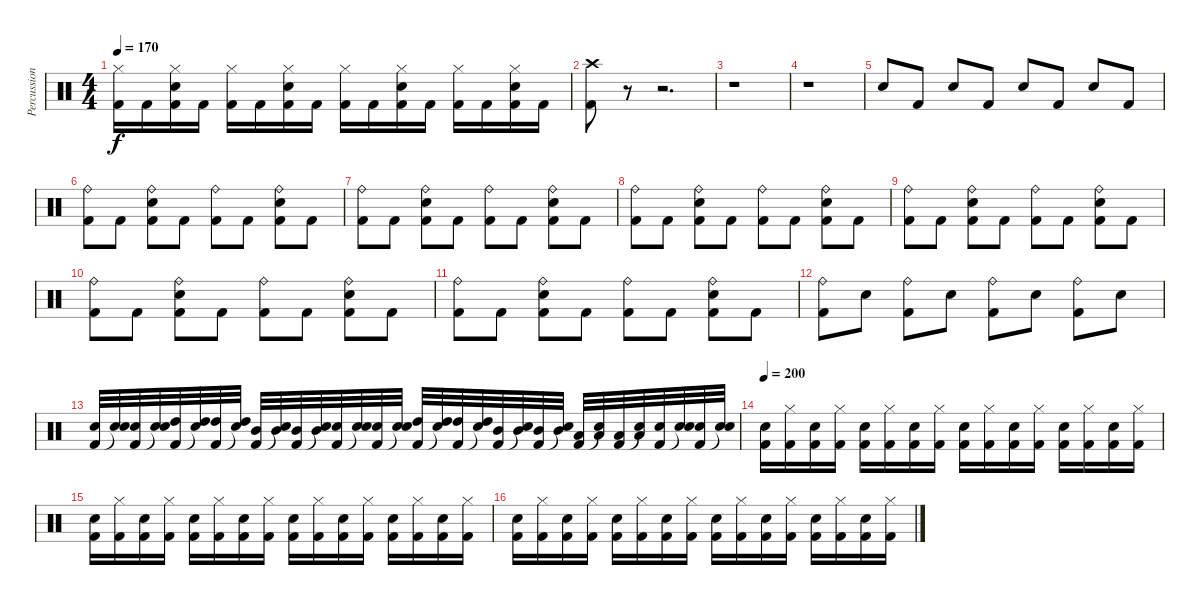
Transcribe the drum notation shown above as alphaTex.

\track ("Percussion" "Percussion") {instrument percussion}
\staff {score}
\articulation defaults
\ts (4 4)
\tempo 170
\clef neutral
\ks c
("Hi-Hat (closed)" "Kick (hit) 2").16{dy f} "Kick (hit) 2".16 ("Hi-Hat (closed)" "Snare (hit) 2" "Kick (hit) 2").16 "Kick (hit) 2".16 ("Hi-Hat (closed)" "Kick (hit) 2").16 "Kick (hit) 2".16 ("Hi-Hat (closed)" "Snare (hit) 2" "Kick (hit) 2").16 "Kick (hit) 2".16 ("Hi-Hat (closed)" "Kick (hit) 2").16 "Kick (hit) 2".16 ("Hi-Hat (closed)" "Snare (hit) 2" "Kick (hit) 2").16 "Kick (hit) 2".16 ("Hi-Hat (closed)" "Kick (hit) 2").16 "Kick (hit) 2".16 ("Hi-Hat (closed)" "Snare (hit) 2" "Kick (hit) 2").16 "Kick (hit) 2".16 |
("Crash high (hit)" "Kick (hit) 2").8 r.8 r.2{d} |
r.1 |
r.1 |
"Snare (hit) 2".8 "Kick (hit) 2".8 "Snare (hit) 2".8 "Kick (hit) 2".8 "Snare (hit) 2".8 "Kick (hit) 2".8 "Snare (hit) 2".8 "Kick (hit) 2".8 |
("Ride (bell)" "Kick (hit) 2").8 "Kick (hit) 2".8 ("Ride (bell)" "Snare (hit) 2" "Kick (hit) 2").8 "Kick (hit) 2".8 ("Ride (bell)" "Kick (hit) 2").8 "Kick (hit) 2".8 ("Ride (bell)" "Snare (hit) 2" "Kick (hit) 2").8 "Kick (hit) 2".8 |
("Ride (bell)" "Kick (hit) 2").8 "Kick (hit) 2".8 ("Ride (bell)" "Snare (hit) 2" "Kick (hit) 2").8 "Kick (hit) 2".8 ("Ride (bell)" "Kick (hit) 2").8 "Kick (hit) 2".8 ("Ride (bell)" "Snare (hit) 2" "Kick (hit) 2").8 "Kick (hit) 2".8 |
("Ride (bell)" "Kick (hit) 2").8 "Kick (hit) 2".8 ("Ride (bell)" "Snare (hit) 2" "Kick (hit) 2").8 "Kick (hit) 2".8 ("Ride (bell)" "Kick (hit) 2").8 "Kick (hit) 2".8 ("Ride (bell)" "Snare (hit) 2" "Kick (hit) 2").8 "Kick (hit) 2".8 |
("Ride (bell)" "Kick (hit) 2").8 "Kick (hit) 2".8 ("Ride (bell)" "Snare (hit) 2" "Kick (hit) 2").8 "Kick (hit) 2".8 ("Ride (bell)" "Kick (hit) 2").8 "Kick (hit) 2".8 ("Ride (bell)" "Snare (hit) 2" "Kick (hit) 2").8 "Kick (hit) 2".8 |
("Ride (bell)" "Kick (hit) 2").8 "Kick (hit) 2".8 ("Ride (bell)" "Snare (hit) 2" "Kick (hit) 2").8 "Kick (hit) 2".8 ("Ride (bell)" "Kick (hit) 2").8 "Kick (hit) 2".8 ("Ride (bell)" "Snare (hit) 2" "Kick (hit) 2").8 "Kick (hit) 2".8 |
("Ride (bell)" "Kick (hit) 2").8 "Kick (hit) 2".8 ("Ride (bell)" "Snare (hit) 2" "Kick (hit) 2").8 "Kick (hit) 2".8 ("Ride (bell)" "Kick (hit) 2").8 "Kick (hit) 2".8 ("Ride (bell)" "Snare (hit) 2" "Kick (hit) 2").8 "Kick (hit) 2".8 |
("Ride (bell)" "Kick (hit) 2").8 "Snare (hit) 2".8 ("Ride (bell)" "Kick (hit) 2").8 "Snare (hit) 2".8 ("Ride (bell)" "Kick (hit) 2").8 "Snare (hit) 2".8 ("Ride (bell)" "Kick (hit) 2").8 "Snare (hit) 2".8 |
("Snare (hit) 2" "Kick (hit) 2").32 ("Snare (hit) 2" "Snare (hit)"{t}).32 ("Snare (hit) 2" "Kick (hit) 2").32 ("Snare (hit) 2" "Snare (hit)"{t}).32 ("High Tom (hit)" "Kick (hit) 2").32 ("High Tom (hit)" "Snare (hit)"{t}).32 ("High Tom (hit)" "Kick (hit) 2").32 ("High Tom (hit)" "Snare (hit)"{t}).32 ("Mid Tom (hit)" "Kick (hit) 2").32 ("Mid Tom (hit)" "Snare (hit)"{t}).32 ("Mid Tom (hit)" "Kick (hit) 2").32 ("Mid Tom (hit)" "Snare (hit)"{t}).32 ("Snare (hit) 2" "Kick (hit) 2").32 ("Snare (hit) 2" "Snare (hit)"{t}).32 ("Snare (hit) 2" "Kick (hit) 2").32 ("Snare (hit) 2" "Snare (hit)"{t}).32 ("High Tom (hit)" "Kick (hit) 2").32 ("High Tom (hit)" "Snare (hit)"{t}).32 ("High Tom (hit)" "Kick (hit) 2").32 ("High Tom (hit)" "Snare (hit)"{t}).32 ("Mid Tom (hit)" "Kick (hit) 2").32 ("Mid Tom (hit)" "Snare (hit)"{t}).32 ("Mid Tom (hit)" "Kick (hit) 2").32 ("Mid Tom (hit)" "Snare (hit)"{t}).32 ("Low Tom (hit)" "Kick (hit) 2").32 ("Low Tom (hit)" "Snare (hit)"{t}).32 ("Low Tom (hit)" "Kick (hit) 2").32 ("Low Tom (hit)" "Snare (hit)"{t}).32 ("Snare (hit) 2" "Kick (hit) 2").32 ("Snare (hit) 2" "Snare (hit)"{t}).32 ("Snare (hit) 2" "Kick (hit) 2").32 ("Snare (hit) 2" "Snare (hit)"{t}).32 |
\tempo 200
("Kick (hit) 2" "Snare (hit) 2").16 ("Kick (hit) 2" "Hi-Hat (closed)").16 ("Kick (hit) 2" "Snare (hit) 2").16 ("Kick (hit) 2" "Hi-Hat (closed)").16 ("Kick (hit) 2" "Snare (hit) 2").16 ("Kick (hit) 2" "Hi-Hat (closed)").16 ("Kick (hit) 2" "Snare (hit) 2").16 ("Kick (hit) 2" "Hi-Hat (closed)").16 ("Kick (hit) 2" "Snare (hit) 2").16 ("Kick (hit) 2" "Hi-Hat (closed)").16 ("Kick (hit) 2" "Snare (hit) 2").16 ("Kick (hit) 2" "Hi-Hat (closed)").16 ("Kick (hit) 2" "Snare (hit) 2").16 ("Kick (hit) 2" "Hi-Hat (closed)").16 ("Kick (hit) 2" "Snare (hit) 2").16 ("Kick (hit) 2" "Hi-Hat (closed)").16 |
("Kick (hit) 2" "Snare (hit) 2").16 ("Kick (hit) 2" "Hi-Hat (closed)").16 ("Kick (hit) 2" "Snare (hit) 2").16 ("Kick (hit) 2" "Hi-Hat (closed)").16 ("Kick (hit) 2" "Snare (hit) 2").16 ("Kick (hit) 2" "Hi-Hat (closed)").16 ("Kick (hit) 2" "Snare (hit) 2").16 ("Kick (hit) 2" "Hi-Hat (closed)").16 ("Kick (hit) 2" "Snare (hit) 2").16 ("Kick (hit) 2" "Hi-Hat (closed)").16 ("Kick (hit) 2" "Snare (hit) 2").16 ("Kick (hit) 2" "Hi-Hat (closed)").16 ("Kick (hit) 2" "Snare (hit) 2").16 ("Kick (hit) 2" "Hi-Hat (closed)").16 ("Kick (hit) 2" "Snare (hit) 2").16 ("Kick (hit) 2" "Hi-Hat (closed)").16 |
("Kick (hit) 2" "Snare (hit) 2").16 ("Kick (hit) 2" "Hi-Hat (closed)").16 ("Kick (hit) 2" "Snare (hit) 2").16 ("Kick (hit) 2" "Hi-Hat (closed)").16 ("Kick (hit) 2" "Snare (hit) 2").16 ("Kick (hit) 2" "Hi-Hat (closed)").16 ("Kick (hit) 2" "Snare (hit) 2").16 ("Kick (hit) 2" "Hi-Hat (closed)").16 ("Kick (hit) 2" "Snare (hit) 2").16 ("Kick (hit) 2" "Hi-Hat (closed)").16 ("Kick (hit) 2" "Snare (hit) 2").16 ("Kick (hit) 2" "Hi-Hat (closed)").16 ("Kick (hit) 2" "Snare (hit) 2").16 ("Kick (hit) 2" "Hi-Hat (closed)").16 ("Kick (hit) 2" "Snare (hit) 2").16 ("Kick (hit) 2" "Hi-Hat (closed)").16
